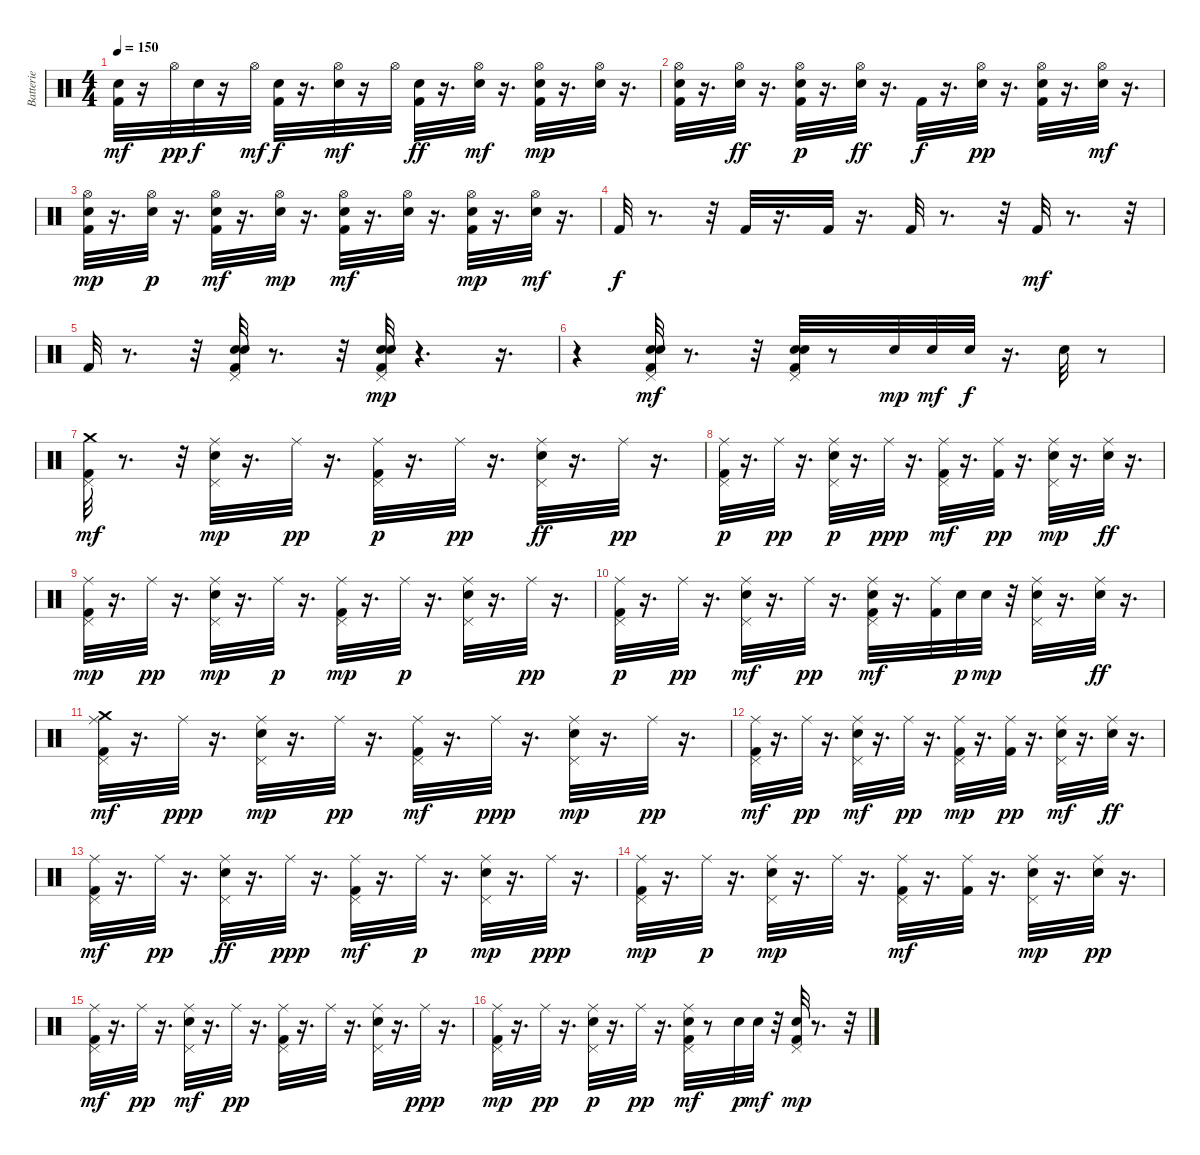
\track ("Batterie" "Batterie") {instrument percussion}
\staff {score}
\articulation defaults
\ts (4 4)
\tempo 150
\clef neutral
\ks c
("Kick (hit) 2" "Electric Snare (hit)").32{dy mf} r.16 "Hi-Hat (open)".32{dy pp} "Electric Snare (hit)".32{dy f} r.16 "Hi-Hat (open)".32{dy mf} ("Kick (hit) 2" "Electric Snare (hit)").32{dy f} r.16{d} ("Hi-Hat (open)" "Electric Snare (hit)").32{dy mf} r.16 "Hi-Hat (open)".32 ("Kick (hit) 2" "Electric Snare (hit)").32{dy ff} r.16{d} ("Hi-Hat (open)" "Electric Snare (hit)").32{dy mf} r.16{d} ("Hi-Hat (open)" "Kick (hit) 2" "Electric Snare (hit)").32{dy mp} r.16{d} ("Hi-Hat (open)" "Electric Snare (hit)").32 r.16{d} |
("Hi-Hat (open)" "Kick (hit) 2" "Electric Snare (hit)").32 r.16{d} ("Hi-Hat (open)" "Electric Snare (hit)").32{dy ff} r.16{d} ("Hi-Hat (open)" "Electric Snare (hit)" "Kick (hit) 2").32{dy p} r.16{d} ("Hi-Hat (open)" "Electric Snare (hit)").32{dy ff} r.16{d} "Kick (hit) 2".32{dy f} r.16{d} ("Hi-Hat (open)" "Electric Snare (hit)").32{dy pp} r.16{d} ("Kick (hit) 2" "Electric Snare (hit)" "Hi-Hat (open)").32 r.16{d} ("Hi-Hat (open)" "Electric Snare (hit)").32{dy mf} r.16{d} |
("Kick (hit) 2" "Hi-Hat (open)" "Electric Snare (hit)").32{dy mp} r.16{d} ("Hi-Hat (open)" "Electric Snare (hit)").32{dy p} r.16{d} ("Hi-Hat (open)" "Electric Snare (hit)" "Kick (hit) 2").32{dy mf} r.16{d} ("Hi-Hat (open)" "Electric Snare (hit)").32{dy mp} r.16{d} ("Hi-Hat (open)" "Kick (hit) 2" "Electric Snare (hit)").32{dy mf} r.16{d} ("Hi-Hat (open)" "Electric Snare (hit)").32 r.16{d} ("Electric Snare (hit)" "Hi-Hat (open)" "Kick (hit) 2").32{dy mp} r.16{d} ("Electric Snare (hit)" "Hi-Hat (open)").32{dy mf} r.16{d} |
"Kick (hit) 2".32{dy f} r.8{d} r.32 "Kick (hit) 2".32 r.16{d} "Kick (hit) 2".32 r.16{d} "Kick (hit) 2".32 r.8{d} r.32 "Kick (hit) 2".32{dy mf} r.8{d} r.32 |
"Kick (hit) 2".32 r.8{d} r.32 ("Electric Snare (hit)" "Kick (hit) 2" "Electric Snare (hit)" "Pedal Hi-Hat (hit)").32 r.8{d} r.32 ("Electric Snare (hit)" "Pedal Hi-Hat (hit)" "Kick (hit) 2" "Electric Snare (hit)").32{dy mp} r.4{d} r.16{d} |
r.4 ("Electric Snare (hit)" "Pedal Hi-Hat (hit)" "Kick (hit) 2" "Electric Snare (hit)").32{dy mf} r.8{d} r.32 ("Electric Snare (hit)" "Pedal Hi-Hat (hit)" "Electric Snare (hit)" "Kick (hit) 2").32 r.8 "Electric Snare (hit)".32{dy mp} "Electric Snare (hit)".32{dy mf} "Electric Snare (hit)".32{dy f} r.16{d} "Electric Snare (hit)".32 r.8 |
("Pedal Hi-Hat (hit)" "Kick (hit) 2" "Crash medium (hit)").32{dy mf} r.8{d} r.32 ("Electric Snare (hit)" "Pedal Hi-Hat (hit)" "Ride (middle)").32{dy mp} r.16{d} "Ride (middle)".32{dy pp} r.16{d} ("Pedal Hi-Hat (hit)" "Kick (hit) 2" "Ride (middle)").32{dy p} r.16{d} "Ride (middle)".32{dy pp} r.16{d} ("Pedal Hi-Hat (hit)" "Ride (middle)" "Electric Snare (hit)").32{dy ff} r.16{d} "Ride (middle)".32{dy pp} r.16{d} |
("Pedal Hi-Hat (hit)" "Ride (middle)" "Kick (hit) 2").32{dy p} r.16{d} "Ride (middle)".32{dy pp} r.16{d} ("Pedal Hi-Hat (hit)" "Electric Snare (hit)" "Ride (middle)").32{dy p} r.16{d} "Ride (middle)".32{dy ppp} r.16{d} ("Ride (middle)" "Kick (hit) 2" "Pedal Hi-Hat (hit)").32{dy mf} r.16{d} ("Ride (middle)" "Kick (hit) 2").32{dy pp} r.16{d} ("Pedal Hi-Hat (hit)" "Ride (middle)" "Electric Snare (hit)").32{dy mp} r.16{d} ("Ride (middle)" "Electric Snare (hit)").32{dy ff} r.16{d} |
("Kick (hit) 2" "Ride (middle)" "Pedal Hi-Hat (hit)").32{dy mp} r.16{d} "Ride (middle)".32{dy pp} r.16{d} ("Electric Snare (hit)" "Ride (middle)" "Pedal Hi-Hat (hit)").32{dy mp} r.16{d} "Ride (middle)".32{dy p} r.16{d} ("Pedal Hi-Hat (hit)" "Kick (hit) 2" "Ride (middle)").32{dy mp} r.16{d} "Ride (middle)".32{dy p} r.16{d} ("Pedal Hi-Hat (hit)" "Electric Snare (hit)" "Ride (middle)").32 r.16{d} "Ride (middle)".32{dy pp} r.16{d} |
("Pedal Hi-Hat (hit)" "Kick (hit) 2" "Ride (middle)").32{dy p} r.16{d} "Ride (middle)".32{dy pp} r.16{d} ("Pedal Hi-Hat (hit)" "Ride (middle)" "Electric Snare (hit)").32{dy mf} r.16{d} "Ride (middle)".32{dy pp} r.16{d} ("Electric Snare (hit)" "Kick (hit) 2" "Ride (middle)" "Pedal Hi-Hat (hit)").32{dy mf} r.16{d} ("Ride (middle)" "Kick (hit) 2").32 "Electric Snare (hit)".32{dy p} "Electric Snare (hit)".32{dy mp} r.32 ("Electric Snare (hit)" "Ride (middle)" "Pedal Hi-Hat (hit)").32 r.16{d} ("Ride (middle)" "Electric Snare (hit)").32{dy ff} r.16{d} |
("Crash medium (hit)" "Kick (hit) 2" "Ride (middle)" "Pedal Hi-Hat (hit)").32{dy mf} r.16{d} "Ride (middle)".32{dy ppp} r.16{d} ("Ride (middle)" "Electric Snare (hit)" "Pedal Hi-Hat (hit)").32{dy mp} r.16{d} "Ride (middle)".32{dy pp} r.16{d} ("Kick (hit) 2" "Ride (middle)" "Pedal Hi-Hat (hit)").32{dy mf} r.16{d} "Ride (middle)".32{dy ppp} r.16{d} ("Ride (middle)" "Electric Snare (hit)" "Pedal Hi-Hat (hit)").32{dy mp} r.16{d} "Ride (middle)".32{dy pp} r.16{d} |
("Kick (hit) 2" "Ride (middle)" "Pedal Hi-Hat (hit)").32{dy mf} r.16{d} "Ride (middle)".32{dy pp} r.16{d} ("Electric Snare (hit)" "Ride (middle)" "Pedal Hi-Hat (hit)").32{dy mf} r.16{d} "Ride (middle)".32{dy pp} r.16{d} ("Kick (hit) 2" "Pedal Hi-Hat (hit)" "Ride (middle)").32{dy mp} r.16{d} ("Kick (hit) 2" "Ride (middle)").32{dy pp} r.16{d} ("Ride (middle)" "Pedal Hi-Hat (hit)" "Electric Snare (hit)").32{dy mf} r.16{d} ("Ride (middle)" "Electric Snare (hit)").32{dy ff} r.16{d} |
("Kick (hit) 2" "Pedal Hi-Hat (hit)" "Ride (middle)").32{dy mf} r.16{d} "Ride (middle)".32{dy pp} r.16{d} ("Pedal Hi-Hat (hit)" "Ride (middle)" "Electric Snare (hit)").32{dy ff} r.16{d} "Ride (middle)".32{dy ppp} r.16{d} ("Kick (hit) 2" "Pedal Hi-Hat (hit)" "Ride (middle)").32{dy mf} r.16{d} "Ride (middle)".32{dy p} r.16{d} ("Electric Snare (hit)" "Pedal Hi-Hat (hit)" "Ride (middle)").32{dy mp} r.16{d} "Ride (middle)".32{dy ppp} r.16{d} |
("Pedal Hi-Hat (hit)" "Ride (middle)" "Kick (hit) 2").32{dy mp} r.16{d} "Ride (middle)".32{dy p} r.16{d} ("Electric Snare (hit)" "Pedal Hi-Hat (hit)" "Ride (middle)").32{dy mp} r.16{d} "Ride (middle)".32 r.16{d} ("Pedal Hi-Hat (hit)" "Kick (hit) 2" "Ride (middle)").32{dy mf} r.16{d} ("Ride (middle)" "Kick (hit) 2").32 r.16{d} ("Electric Snare (hit)" "Pedal Hi-Hat (hit)" "Ride (middle)").32{dy mp} r.16{d} ("Electric Snare (hit)" "Ride (middle)").32{dy pp} r.16{d} |
("Kick (hit) 2" "Pedal Hi-Hat (hit)" "Ride (middle)").32{dy mf} r.16{d} "Ride (middle)".32{dy pp} r.16{d} ("Electric Snare (hit)" "Ride (middle)" "Pedal Hi-Hat (hit)").32{dy mf} r.16{d} "Ride (middle)".32{dy pp} r.16{d} ("Kick (hit) 2" "Pedal Hi-Hat (hit)" "Ride (middle)").32 r.16{d} "Ride (middle)".32 r.16{d} ("Electric Snare (hit)" "Pedal Hi-Hat (hit)" "Ride (middle)").32 r.16{d} "Ride (middle)".32{dy ppp} r.16{d} |
("Kick (hit) 2" "Ride (middle)" "Pedal Hi-Hat (hit)").32{dy mp} r.16{d} "Ride (middle)".32{dy pp} r.16{d} ("Electric Snare (hit)" "Pedal Hi-Hat (hit)" "Ride (middle)").32{dy p} r.16{d} "Ride (middle)".32{dy pp} r.16{d} ("Electric Snare (hit)" "Ride (middle)" "Pedal Hi-Hat (hit)" "Kick (hit) 2").32{dy mf} r.8 "Electric Snare (hit)".32{dy p} "Electric Snare (hit)".32{dy mf} r.32 ("Electric Snare (hit)" "Kick (hit) 2" "Pedal Hi-Hat (hit)").32{dy mp} r.8{d} r.32
